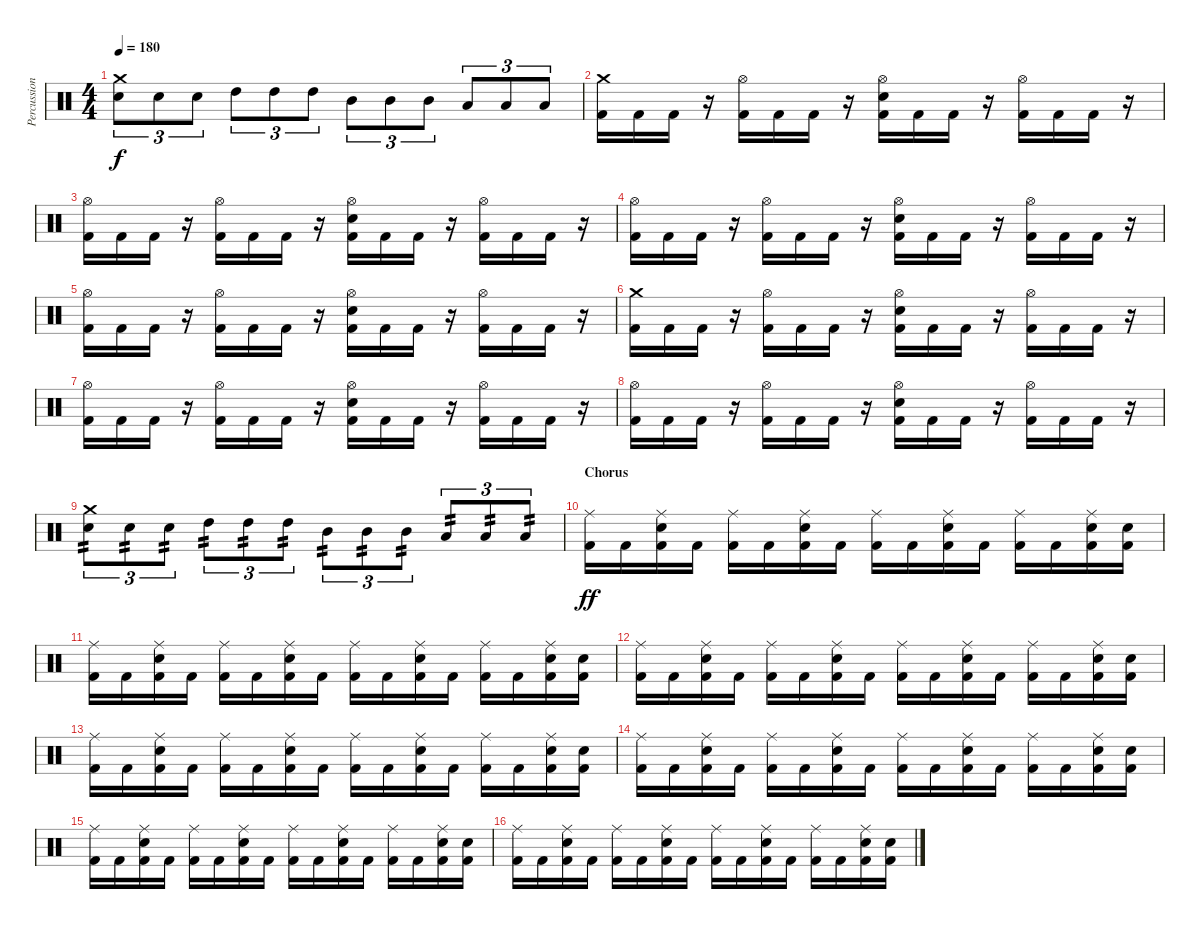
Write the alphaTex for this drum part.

\track ("Percussions" "Percussion") {instrument percussion}
\staff {score}
\articulation defaults
\ts (4 4)
\tempo 180
\clef neutral
\ks c
("Crash medium (hit)" "Electric Snare (hit)").8{tu (3 2) dy f} "Electric Snare (hit)".8{tu (3 2)} "Electric Snare (hit)".8{tu (3 2)} "High Tom (hit)".8{tu (3 2)} "High Tom (hit)".8{tu (3 2)} "High Tom (hit)".8{tu (3 2)} "Mid Tom (hit)".8{tu (3 2)} "Mid Tom (hit)".8{tu (3 2)} "Mid Tom (hit)".8{tu (3 2)} "Low Tom (hit)".8{tu (3 2)} "Low Tom (hit)".8{tu (3 2)} "Low Tom (hit)".8{tu (3 2)} |
("Crash medium (hit)" "Kick (hit) 2").16 "Kick (hit) 2".16 "Kick (hit) 2".16 r.16 ("Hi-Hat (open)" "Kick (hit) 2").16 "Kick (hit) 2".16 "Kick (hit) 2".16 r.16 ("Hi-Hat (open)" "Electric Snare (hit)" "Kick (hit) 2").16 "Kick (hit) 2".16 "Kick (hit) 2".16 r.16 ("Hi-Hat (open)" "Kick (hit) 2").16 "Kick (hit) 2".16 "Kick (hit) 2".16 r.16 |
("Hi-Hat (open)" "Kick (hit) 2").16 "Kick (hit) 2".16 "Kick (hit) 2".16 r.16 ("Hi-Hat (open)" "Kick (hit) 2").16 "Kick (hit) 2".16 "Kick (hit) 2".16 r.16 ("Hi-Hat (open)" "Electric Snare (hit)" "Kick (hit) 2").16 "Kick (hit) 2".16 "Kick (hit) 2".16 r.16 ("Hi-Hat (open)" "Kick (hit) 2").16 "Kick (hit) 2".16 "Kick (hit) 2".16 r.16 |
("Hi-Hat (open)" "Kick (hit) 2").16 "Kick (hit) 2".16 "Kick (hit) 2".16 r.16 ("Hi-Hat (open)" "Kick (hit) 2").16 "Kick (hit) 2".16 "Kick (hit) 2".16 r.16 ("Hi-Hat (open)" "Electric Snare (hit)" "Kick (hit) 2").16 "Kick (hit) 2".16 "Kick (hit) 2".16 r.16 ("Hi-Hat (open)" "Kick (hit) 2").16 "Kick (hit) 2".16 "Kick (hit) 2".16 r.16 |
("Hi-Hat (open)" "Kick (hit) 2").16 "Kick (hit) 2".16 "Kick (hit) 2".16 r.16 ("Hi-Hat (open)" "Kick (hit) 2").16 "Kick (hit) 2".16 "Kick (hit) 2".16 r.16 ("Hi-Hat (open)" "Electric Snare (hit)" "Kick (hit) 2").16 "Kick (hit) 2".16 "Kick (hit) 2".16 r.16 ("Hi-Hat (open)" "Kick (hit) 2").16 "Kick (hit) 2".16 "Kick (hit) 2".16 r.16 |
("Crash medium (hit)" "Kick (hit) 2").16 "Kick (hit) 2".16 "Kick (hit) 2".16 r.16 ("Hi-Hat (open)" "Kick (hit) 2").16 "Kick (hit) 2".16 "Kick (hit) 2".16 r.16 ("Hi-Hat (open)" "Electric Snare (hit)" "Kick (hit) 2").16 "Kick (hit) 2".16 "Kick (hit) 2".16 r.16 ("Hi-Hat (open)" "Kick (hit) 2").16 "Kick (hit) 2".16 "Kick (hit) 2".16 r.16 |
("Hi-Hat (open)" "Kick (hit) 2").16 "Kick (hit) 2".16 "Kick (hit) 2".16 r.16 ("Hi-Hat (open)" "Kick (hit) 2").16 "Kick (hit) 2".16 "Kick (hit) 2".16 r.16 ("Hi-Hat (open)" "Electric Snare (hit)" "Kick (hit) 2").16 "Kick (hit) 2".16 "Kick (hit) 2".16 r.16 ("Hi-Hat (open)" "Kick (hit) 2").16 "Kick (hit) 2".16 "Kick (hit) 2".16 r.16 |
("Hi-Hat (open)" "Kick (hit) 2").16 "Kick (hit) 2".16 "Kick (hit) 2".16 r.16 ("Hi-Hat (open)" "Kick (hit) 2").16 "Kick (hit) 2".16 "Kick (hit) 2".16 r.16 ("Hi-Hat (open)" "Electric Snare (hit)" "Kick (hit) 2").16 "Kick (hit) 2".16 "Kick (hit) 2".16 r.16 ("Hi-Hat (open)" "Kick (hit) 2").16 "Kick (hit) 2".16 "Kick (hit) 2".16 r.16 |
("Crash medium (hit)" "Electric Snare (hit)").8{tu (3 2) tp 2} "Electric Snare (hit)".8{tu (3 2) tp 2} "Electric Snare (hit)".8{tu (3 2) tp 2} "High Tom (hit)".8{tu (3 2) tp 2} "High Tom (hit)".8{tu (3 2) tp 2} "High Tom (hit)".8{tu (3 2) tp 2} "Mid Tom (hit)".8{tu (3 2) tp 2} "Mid Tom (hit)".8{tu (3 2) tp 2} "Mid Tom (hit)".8{tu (3 2) tp 2} "Low Tom (hit)".8{tu (3 2) tp 2} "Low Tom (hit)".8{tu (3 2) tp 2} "Low Tom (hit)".8{tu (3 2) tp 2} |
\section ("" "Chorus")
("Ride (middle)" "Kick (hit) 2").16{dy ff} "Kick (hit) 2".16 ("Ride (middle)" "Electric Snare (hit)" "Kick (hit) 2").16 "Kick (hit) 2".16 ("Ride (middle)" "Kick (hit) 2").16 "Kick (hit) 2".16 ("Ride (middle)" "Electric Snare (hit)" "Kick (hit) 2").16 "Kick (hit) 2".16 ("Ride (middle)" "Kick (hit) 2").16 "Kick (hit) 2".16 ("Ride (middle)" "Electric Snare (hit)" "Kick (hit) 2").16 "Kick (hit) 2".16 ("Ride (middle)" "Kick (hit) 2").16 "Kick (hit) 2".16 ("Ride (middle)" "Electric Snare (hit)" "Kick (hit) 2").16 ("Electric Snare (hit)" "Kick (hit) 2").16 |
("Ride (middle)" "Kick (hit) 2").16 "Kick (hit) 2".16 ("Ride (middle)" "Electric Snare (hit)" "Kick (hit) 2").16 "Kick (hit) 2".16 ("Ride (middle)" "Kick (hit) 2").16 "Kick (hit) 2".16 ("Ride (middle)" "Electric Snare (hit)" "Kick (hit) 2").16 "Kick (hit) 2".16 ("Ride (middle)" "Kick (hit) 2").16 "Kick (hit) 2".16 ("Ride (middle)" "Electric Snare (hit)" "Kick (hit) 2").16 "Kick (hit) 2".16 ("Ride (middle)" "Kick (hit) 2").16 "Kick (hit) 2".16 ("Ride (middle)" "Electric Snare (hit)" "Kick (hit) 2").16 ("Electric Snare (hit)" "Kick (hit) 2").16 |
("Ride (middle)" "Kick (hit) 2").16 "Kick (hit) 2".16 ("Ride (middle)" "Electric Snare (hit)" "Kick (hit) 2").16 "Kick (hit) 2".16 ("Ride (middle)" "Kick (hit) 2").16 "Kick (hit) 2".16 ("Ride (middle)" "Electric Snare (hit)" "Kick (hit) 2").16 "Kick (hit) 2".16 ("Ride (middle)" "Kick (hit) 2").16 "Kick (hit) 2".16 ("Ride (middle)" "Electric Snare (hit)" "Kick (hit) 2").16 "Kick (hit) 2".16 ("Ride (middle)" "Kick (hit) 2").16 "Kick (hit) 2".16 ("Ride (middle)" "Electric Snare (hit)" "Kick (hit) 2").16 ("Electric Snare (hit)" "Kick (hit) 2").16 |
("Ride (middle)" "Kick (hit) 2").16 "Kick (hit) 2".16 ("Ride (middle)" "Electric Snare (hit)" "Kick (hit) 2").16 "Kick (hit) 2".16 ("Ride (middle)" "Kick (hit) 2").16 "Kick (hit) 2".16 ("Ride (middle)" "Electric Snare (hit)" "Kick (hit) 2").16 "Kick (hit) 2".16 ("Ride (middle)" "Kick (hit) 2").16 "Kick (hit) 2".16 ("Ride (middle)" "Electric Snare (hit)" "Kick (hit) 2").16 "Kick (hit) 2".16 ("Ride (middle)" "Kick (hit) 2").16 "Kick (hit) 2".16 ("Ride (middle)" "Electric Snare (hit)" "Kick (hit) 2").16 ("Electric Snare (hit)" "Kick (hit) 2").16 |
("Ride (middle)" "Kick (hit) 2").16 "Kick (hit) 2".16 ("Ride (middle)" "Electric Snare (hit)" "Kick (hit) 2").16 "Kick (hit) 2".16 ("Ride (middle)" "Kick (hit) 2").16 "Kick (hit) 2".16 ("Ride (middle)" "Electric Snare (hit)" "Kick (hit) 2").16 "Kick (hit) 2".16 ("Ride (middle)" "Kick (hit) 2").16 "Kick (hit) 2".16 ("Ride (middle)" "Electric Snare (hit)" "Kick (hit) 2").16 "Kick (hit) 2".16 ("Ride (middle)" "Kick (hit) 2").16 "Kick (hit) 2".16 ("Ride (middle)" "Electric Snare (hit)" "Kick (hit) 2").16 ("Electric Snare (hit)" "Kick (hit) 2").16 |
("Ride (middle)" "Kick (hit) 2").16 "Kick (hit) 2".16 ("Ride (middle)" "Electric Snare (hit)" "Kick (hit) 2").16 "Kick (hit) 2".16 ("Ride (middle)" "Kick (hit) 2").16 "Kick (hit) 2".16 ("Ride (middle)" "Electric Snare (hit)" "Kick (hit) 2").16 "Kick (hit) 2".16 ("Ride (middle)" "Kick (hit) 2").16 "Kick (hit) 2".16 ("Ride (middle)" "Electric Snare (hit)" "Kick (hit) 2").16 "Kick (hit) 2".16 ("Ride (middle)" "Kick (hit) 2").16 "Kick (hit) 2".16 ("Ride (middle)" "Electric Snare (hit)" "Kick (hit) 2").16 ("Electric Snare (hit)" "Kick (hit) 2").16 |
("Ride (middle)" "Kick (hit) 2").16 "Kick (hit) 2".16 ("Ride (middle)" "Electric Snare (hit)" "Kick (hit) 2").16 "Kick (hit) 2".16 ("Ride (middle)" "Kick (hit) 2").16 "Kick (hit) 2".16 ("Ride (middle)" "Electric Snare (hit)" "Kick (hit) 2").16 "Kick (hit) 2".16 ("Ride (middle)" "Kick (hit) 2").16 "Kick (hit) 2".16 ("Ride (middle)" "Electric Snare (hit)" "Kick (hit) 2").16 "Kick (hit) 2".16 ("Ride (middle)" "Kick (hit) 2").16 "Kick (hit) 2".16 ("Ride (middle)" "Electric Snare (hit)" "Kick (hit) 2").16 ("Electric Snare (hit)" "Kick (hit) 2").16
